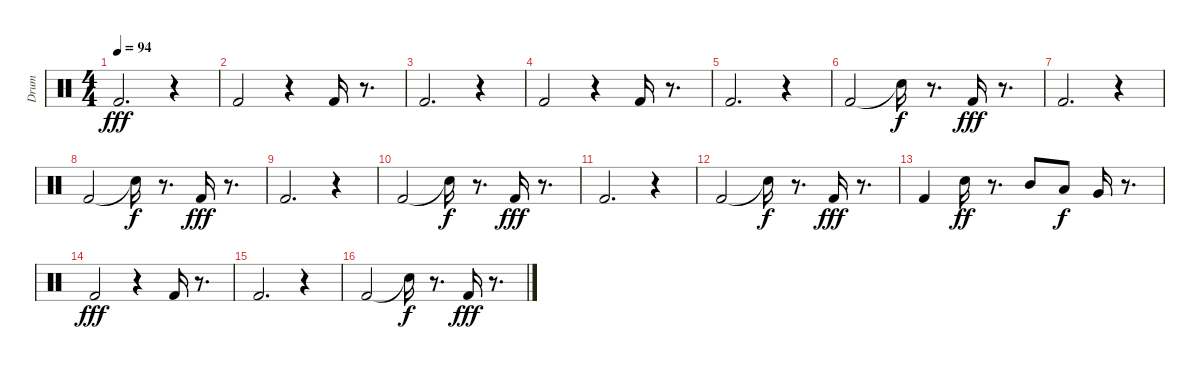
\track ("Drum                    " "Drum      ") {instrument percussion}
\staff {score}
\articulation defaults
\ts (4 4)
\tempo 94
\clef neutral
\ks c "Kick (hit) 2".2{d dy fff}
r.4 |
"Kick (hit) 2".2 r.4 "Kick (hit) 2".16 r.8{d} |
"Kick (hit) 2".2{d} r.4 |
"Kick (hit) 2".2 r.4 "Kick (hit) 2".16 r.8{d} |
"Kick (hit) 2".2{d} r.4 |
"Kick (hit) 2".2 "Snare (hit)"{t}.16{dy f} r.8{d} "Kick (hit) 2".16{dy fff} r.8{d} |
"Kick (hit) 2".2{d} r.4 |
"Kick (hit) 2".2 "Snare (hit)"{t}.16{dy f} r.8{d} "Kick (hit) 2".16{dy fff} r.8{d} |
"Kick (hit) 2".2{d} r.4 |
"Kick (hit) 2".2 "Snare (hit)"{t}.16{dy f} r.8{d} "Kick (hit) 2".16{dy fff} r.8{d} |
"Kick (hit) 2".2{d} r.4 |
"Kick (hit) 2".2 "Snare (hit)"{t}.16{dy f} r.8{d} "Kick (hit) 2".16{dy fff} r.8{d} |
"Kick (hit) 2".4 "Snare (hit) 2".16{dy ff} r.8{d} "Mid Tom (hit)".8 "Low Tom (hit)".8{dy f} "Very Low Tom (hit)".16 r.8{d} |
"Kick (hit) 2".2{dy fff} r.4 "Kick (hit) 2".16 r.8{d} |
"Kick (hit) 2".2{d} r.4 |
"Kick (hit) 2".2 "Snare (hit)"{t}.16{dy f} r.8{d} "Kick (hit) 2".16{dy fff} r.8{d}
